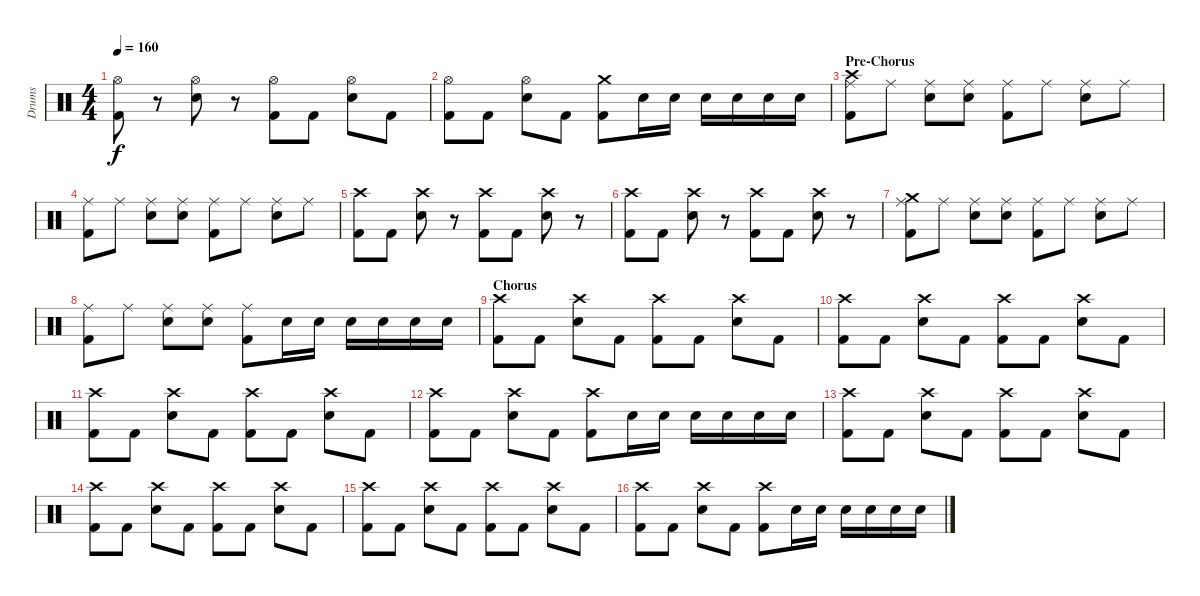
\track ("Drums" "Drums") {instrument percussion}
\staff {score}
\articulation defaults
\ts (4 4)
\tempo 160
\clef neutral
\ks c
("Hi-Hat (open)" "Kick (hit) 2").8{dy f} r.8 ("Hi-Hat (open)" "Snare (hit) 2").8 r.8 ("Hi-Hat (open)" "Kick (hit) 2").8 "Kick (hit) 2".8 ("Hi-Hat (open)" "Snare (hit) 2").8 "Kick (hit) 2".8 |
("Hi-Hat (open)" "Kick (hit) 2").8 "Kick (hit) 2".8 ("Hi-Hat (open)" "Snare (hit) 2").8 "Kick (hit) 2".8 ("Crash medium (hit)" "Kick (hit) 2").8 "Snare (hit) 2".16 "Snare (hit) 2".16 "Snare (hit) 2".16 "Snare (hit) 2".16 "Snare (hit) 2".16 "Snare (hit) 2".16 |
\section ("" "Pre-Chorus")
("Ride (middle)" "Crash high (hit)" "Kick (hit) 2").8 "Ride (middle)".8 ("Ride (middle)" "Snare (hit) 2").8 ("Ride (middle)" "Snare (hit) 2").8 ("Ride (middle)" "Kick (hit) 2").8 "Ride (middle)".8 ("Ride (middle)" "Snare (hit) 2").8 "Ride (middle)".8 |
("Ride (middle)" "Kick (hit) 2").8 "Ride (middle)".8 ("Ride (middle)" "Snare (hit) 2").8 ("Ride (middle)" "Snare (hit) 2").8 ("Ride (middle)" "Kick (hit) 2").8 "Ride (middle)".8 ("Ride (middle)" "Snare (hit) 2").8 "Ride (middle)".8 |
("Crash high (hit)" "Kick (hit) 2").8 "Kick (hit) 2".8 ("Crash high (hit)" "Snare (hit) 2").8 r.8 ("Crash high (hit)" "Kick (hit) 2").8 "Kick (hit) 2".8 ("Crash high (hit)" "Snare (hit) 2").8 r.8 |
("Crash high (hit)" "Kick (hit) 2").8 "Kick (hit) 2".8 ("Crash high (hit)" "Snare (hit) 2").8 r.8 ("Crash high (hit)" "Kick (hit) 2").8 "Kick (hit) 2".8 ("Crash high (hit)" "Snare (hit) 2").8 r.8 |
("Ride (middle)" "Crash medium (hit)" "Kick (hit) 2").8 "Ride (middle)".8 ("Ride (middle)" "Snare (hit) 2").8 ("Ride (middle)" "Snare (hit) 2").8 ("Ride (middle)" "Kick (hit) 2").8 "Ride (middle)".8 ("Ride (middle)" "Snare (hit) 2").8 "Ride (middle)".8 |
("Ride (middle)" "Kick (hit) 2").8 "Ride (middle)".8 ("Ride (middle)" "Snare (hit) 2").8 ("Ride (middle)" "Snare (hit) 2").8 ("Ride (middle)" "Kick (hit) 2").8 "Snare (hit) 2".16 "Snare (hit) 2".16 "Snare (hit) 2".16 "Snare (hit) 2".16 "Snare (hit) 2".16 "Snare (hit) 2".16 |
\section ("" "Chorus")
("Crash high (hit)" "Kick (hit) 2").8 "Kick (hit) 2".8 ("Crash high (hit)" "Snare (hit) 2").8 "Kick (hit) 2".8 ("Crash high (hit)" "Kick (hit) 2").8 "Kick (hit) 2".8 ("Crash high (hit)" "Snare (hit) 2").8 "Kick (hit) 2".8 |
("Crash high (hit)" "Kick (hit) 2").8 "Kick (hit) 2".8 ("Crash high (hit)" "Snare (hit) 2").8 "Kick (hit) 2".8 ("Crash high (hit)" "Kick (hit) 2").8 "Kick (hit) 2".8 ("Crash high (hit)" "Snare (hit) 2").8 "Kick (hit) 2".8 |
("Crash high (hit)" "Kick (hit) 2").8 "Kick (hit) 2".8 ("Crash high (hit)" "Snare (hit) 2").8 "Kick (hit) 2".8 ("Crash high (hit)" "Kick (hit) 2").8 "Kick (hit) 2".8 ("Crash high (hit)" "Snare (hit) 2").8 "Kick (hit) 2".8 |
("Crash high (hit)" "Kick (hit) 2").8 "Kick (hit) 2".8 ("Crash high (hit)" "Snare (hit) 2").8 "Kick (hit) 2".8 ("Crash high (hit)" "Kick (hit) 2").8 "Snare (hit) 2".16 "Snare (hit) 2".16 "Snare (hit) 2".16 "Snare (hit) 2".16 "Snare (hit) 2".16 "Snare (hit) 2".16 |
("Crash high (hit)" "Kick (hit) 2").8 "Kick (hit) 2".8 ("Crash high (hit)" "Snare (hit) 2").8 "Kick (hit) 2".8 ("Crash high (hit)" "Kick (hit) 2").8 "Kick (hit) 2".8 ("Crash high (hit)" "Snare (hit) 2").8 "Kick (hit) 2".8 |
("Crash high (hit)" "Kick (hit) 2").8 "Kick (hit) 2".8 ("Crash high (hit)" "Snare (hit) 2").8 "Kick (hit) 2".8 ("Crash high (hit)" "Kick (hit) 2").8 "Kick (hit) 2".8 ("Crash high (hit)" "Snare (hit) 2").8 "Kick (hit) 2".8 |
("Crash high (hit)" "Kick (hit) 2").8 "Kick (hit) 2".8 ("Crash high (hit)" "Snare (hit) 2").8 "Kick (hit) 2".8 ("Crash high (hit)" "Kick (hit) 2").8 "Kick (hit) 2".8 ("Crash high (hit)" "Snare (hit) 2").8 "Kick (hit) 2".8 |
("Crash high (hit)" "Kick (hit) 2").8 "Kick (hit) 2".8 ("Crash high (hit)" "Snare (hit) 2").8 "Kick (hit) 2".8 ("Crash high (hit)" "Kick (hit) 2").8 "Snare (hit) 2".16 "Snare (hit) 2".16 "Snare (hit) 2".16 "Snare (hit) 2".16 "Snare (hit) 2".16 "Snare (hit) 2".16
